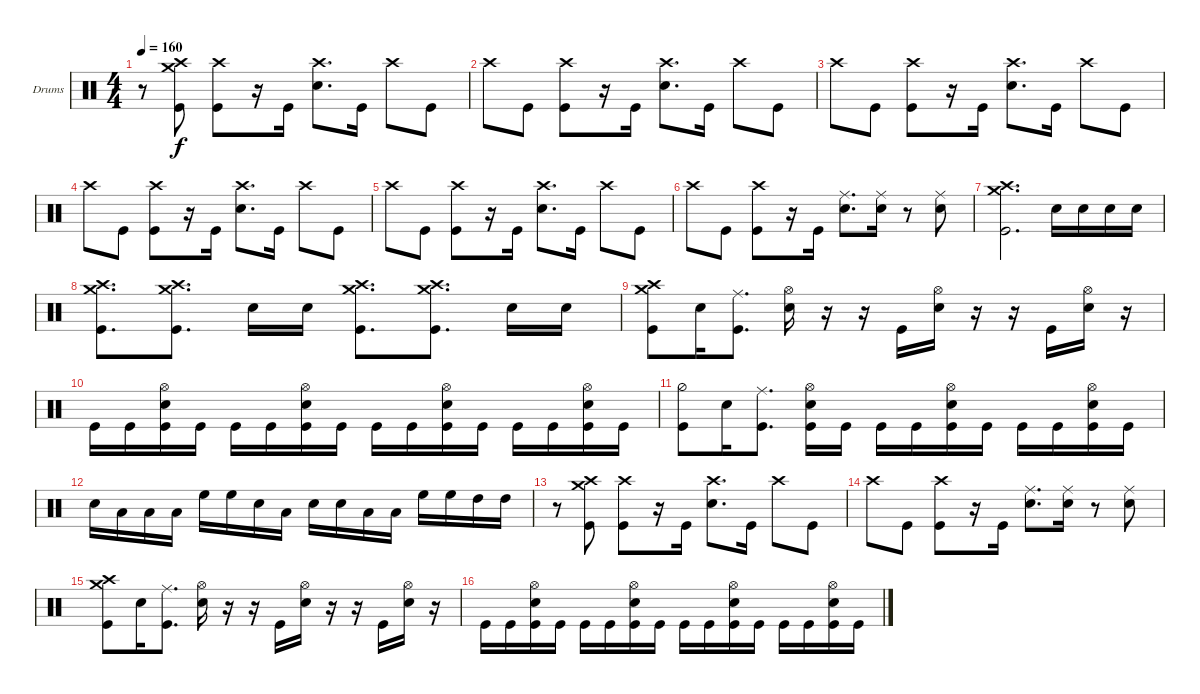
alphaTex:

\defaultSystemsLayout 4
\bracketExtendMode groupsimilarinstruments
\firstSystemTrackNameOrientation horizontal
\otherSystemsTrackNameOrientation horizontal
\track ("Moe Carlson" "Drums") {instrument percussion}
\staff {score}
\articulation defaults
\ts (4 4)
\tempo 160
\clef neutral
\ks c
r.8{dy f} ("Crash medium (hit)" "Crash high (hit)" "Kick (hit)").8 ("Kick (hit)" "Crash high (hit)").8 r.16 "Kick (hit)".16 ("Snare (hit) 2" "Crash high (hit)").8{d} "Kick (hit)".16 "Crash high (hit)".8 "Kick (hit)".8 |
"Crash high (hit)".8 "Kick (hit)".8 ("Kick (hit)" "Crash high (hit)").8 r.16 "Kick (hit)".16 ("Snare (hit) 2" "Crash high (hit)").8{d} "Kick (hit)".16 "Crash high (hit)".8 "Kick (hit)".8 |
"Crash high (hit)".8 "Kick (hit)".8 ("Kick (hit)" "Crash high (hit)").8 r.16 "Kick (hit)".16 ("Snare (hit) 2" "Crash high (hit)").8{d} "Kick (hit)".16 "Crash high (hit)".8 "Kick (hit)".8 |
"Crash high (hit)".8 "Kick (hit)".8 ("Kick (hit)" "Crash high (hit)").8 r.16 "Kick (hit)".16 ("Snare (hit) 2" "Crash high (hit)").8{d} "Kick (hit)".16 "Crash high (hit)".8 "Kick (hit)".8 |
"Crash high (hit)".8 "Kick (hit)".8 ("Kick (hit)" "Crash high (hit)").8 r.16 "Kick (hit)".16 ("Snare (hit) 2" "Crash high (hit)").8{d} "Kick (hit)".16 "Crash high (hit)".8 "Kick (hit)".8 |
"Crash high (hit)".8 "Kick (hit)".8 ("Kick (hit)" "Crash high (hit)").8 r.16 "Kick (hit)".16 ("Snare (hit) 2" "Ride (middle)").8{d} ("Ride (middle)" "Snare (hit) 2").16 r.8 ("Snare (hit) 2" "Ride (middle)").8 |
("Crash medium (hit)" "Crash high (hit)" "Kick (hit)").2{d} "Snare (hit) 2".16 "Snare (hit) 2".16 "Snare (hit) 2".16 "Snare (hit) 2".16 |
("Kick (hit)" "Crash medium (hit)" "Crash high (hit)").8{d} ("Crash high (hit)" "Crash medium (hit)" "Kick (hit)").8{d} "Snare (hit) 2".16 "Snare (hit) 2".16 ("Kick (hit)" "Crash medium (hit)" "Crash high (hit)").8{d} ("Crash high (hit)" "Crash medium (hit)" "Kick (hit)").8{d} "Snare (hit) 2".16 "Snare (hit) 2".16 |
("Crash medium (hit)" "Crash high (hit)" "Kick (hit)").8 "Snare (hit) 2".16 ("Ride (middle)" "Kick (hit)").8{d} ("Snare (hit) 2" "Hi-Hat (open)").16 r.16 r.16 "Kick (hit)".16 ("Snare (hit) 2" "Hi-Hat (open)").16 r.16 r.16 "Kick (hit)".16 ("Snare (hit) 2" "Hi-Hat (open)").16 r.16 |
"Kick (hit)".16 "Kick (hit)".16 ("Kick (hit)" "Snare (hit) 2" "Hi-Hat (open)").16 "Kick (hit)".16 "Kick (hit)".16 "Kick (hit)".16 ("Kick (hit)" "Snare (hit) 2" "Hi-Hat (open)").16 "Kick (hit)".16 "Kick (hit)".16 "Kick (hit)".16 ("Kick (hit)" "Snare (hit) 2" "Hi-Hat (open)").16 "Kick (hit)".16 "Kick (hit)".16 "Kick (hit)".16 ("Kick (hit)" "Snare (hit) 2" "Hi-Hat (open)").16 "Kick (hit)".16 |
("Kick (hit)" "Hi-Hat (half)").8 "Snare (hit) 2".16 ("Ride (middle)" "Kick (hit)").8{d} ("Kick (hit)" "Snare (hit) 2" "Hi-Hat (open)").16 "Kick (hit)".16 "Kick (hit)".16 "Kick (hit)".16 ("Kick (hit)" "Hi-Hat (open)" "Snare (hit) 2").16 "Kick (hit)".16 "Kick (hit)".16 "Kick (hit)".16 ("Kick (hit)" "Snare (hit) 2" "Hi-Hat (open)").16 "Kick (hit)".16 |
"Snare (hit) 2".16 "Low Tom (hit)".16 "Low Tom (hit)".16 "Low Tom (hit)".16 "High Floor Tom (hit)".16 "High Floor Tom (hit)".16 "Snare (hit) 2".16 "Low Tom (hit)".16 "Snare (hit) 2".16 "Snare (hit) 2".16 "Low Tom (hit)".16 "Low Tom (hit)".16 "High Floor Tom (hit)".16 "High Floor Tom (hit)".16 "High Tom (hit)".16 "High Tom (hit)".16 |
r.8 ("Crash medium (hit)" "Crash high (hit)" "Kick (hit)").8 ("Kick (hit)" "Crash high (hit)").8 r.16 "Kick (hit)".16 ("Snare (hit) 2" "Crash high (hit)").8{d} "Kick (hit)".16 "Crash high (hit)".8 "Kick (hit)".8 |
"Crash high (hit)".8 "Kick (hit)".8 ("Kick (hit)" "Crash high (hit)").8 r.16 "Kick (hit)".16 ("Snare (hit) 2" "Ride (middle)").8{d} ("Ride (middle)" "Snare (hit) 2").16 r.8 ("Snare (hit) 2" "Ride (middle)").8 |
("Crash medium (hit)" "Crash high (hit)" "Kick (hit)").8 "Snare (hit) 2".16 ("Ride (middle)" "Kick (hit)").8{d} ("Snare (hit) 2" "Hi-Hat (open)").16 r.16 r.16 "Kick (hit)".16 ("Snare (hit) 2" "Hi-Hat (open)").16 r.16 r.16 "Kick (hit)".16 ("Snare (hit) 2" "Hi-Hat (open)").16 r.16 |
"Kick (hit)".16 "Kick (hit)".16 ("Kick (hit)" "Snare (hit) 2" "Hi-Hat (open)").16 "Kick (hit)".16 "Kick (hit)".16 "Kick (hit)".16 ("Kick (hit)" "Snare (hit) 2" "Hi-Hat (open)").16 "Kick (hit)".16 "Kick (hit)".16 "Kick (hit)".16 ("Kick (hit)" "Snare (hit) 2" "Hi-Hat (open)").16 "Kick (hit)".16 "Kick (hit)".16 "Kick (hit)".16 ("Kick (hit)" "Snare (hit) 2" "Hi-Hat (open)").16 "Kick (hit)".16
